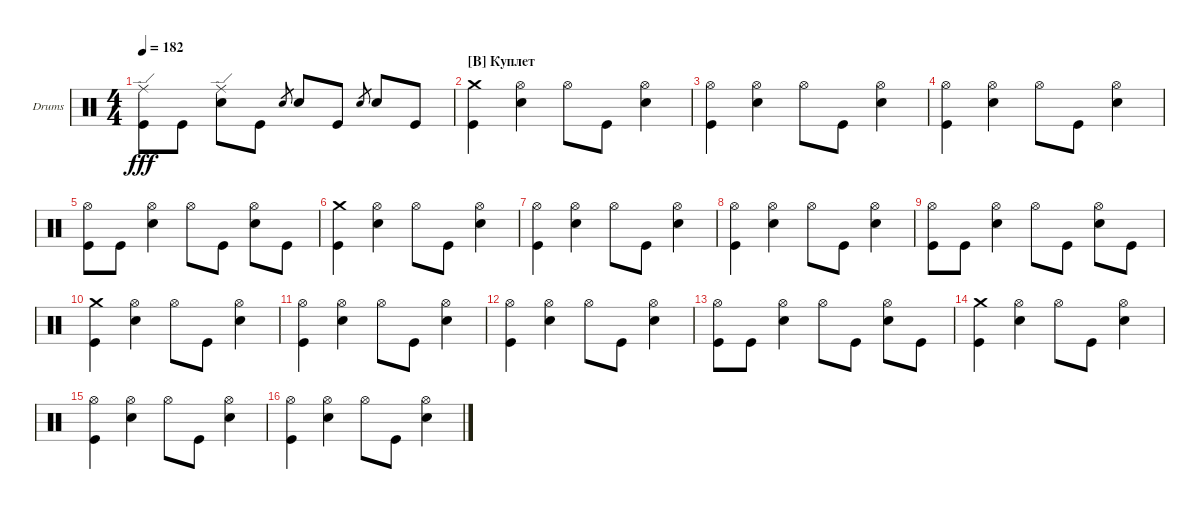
\defaultSystemsLayout 4
\bracketExtendMode groupsimilarinstruments
\firstSystemTrackNameOrientation horizontal
\otherSystemsTrackNameOrientation horizontal
\track ("Drumkit" "Drums") {instrument percussion}
\staff {score}
\articulation defaults
\ts (4 4)
\tempo 182
\clef neutral
\ks c
("Kick (hit)" "Ride (edge)").8{dy fff} "Kick (hit)".8 ("Snare (hit) 2" "Ride (edge)").8 "Kick (hit)".8 "Snare (hit) 2".8{gr} "Snare (hit) 2".8 "Kick (hit)".8 "Snare (hit) 2".8{gr} "Snare (hit) 2".8 "Kick (hit)".8 |
\section ("B" "Куплет")
("Kick (hit)" "Crash medium (hit)").4 ("Snare (hit) 2" "Hi-Hat (open)").4 "Hi-Hat (open)".8 "Kick (hit)".8 ("Snare (hit) 2" "Hi-Hat (open)").4 |
("Kick (hit)" "Hi-Hat (open)").4 ("Snare (hit) 2" "Hi-Hat (open)").4 "Hi-Hat (open)".8 "Kick (hit)".8 ("Snare (hit) 2" "Hi-Hat (open)").4 |
("Kick (hit)" "Hi-Hat (open)").4 ("Snare (hit) 2" "Hi-Hat (open)").4 "Hi-Hat (open)".8 "Kick (hit)".8 ("Snare (hit) 2" "Hi-Hat (open)").4 |
("Kick (hit)" "Hi-Hat (open)").8 "Kick (hit)".8 ("Snare (hit) 2" "Hi-Hat (open)").4 "Hi-Hat (open)".8 "Kick (hit)".8 ("Snare (hit) 2" "Hi-Hat (open)").8 "Kick (hit)".8 |
("Kick (hit)" "Crash medium (hit)").4 ("Snare (hit) 2" "Hi-Hat (open)").4 "Hi-Hat (open)".8 "Kick (hit)".8 ("Snare (hit) 2" "Hi-Hat (open)").4 |
("Kick (hit)" "Hi-Hat (open)").4 ("Snare (hit) 2" "Hi-Hat (open)").4 "Hi-Hat (open)".8 "Kick (hit)".8 ("Snare (hit) 2" "Hi-Hat (open)").4 |
("Kick (hit)" "Hi-Hat (open)").4 ("Snare (hit) 2" "Hi-Hat (open)").4 "Hi-Hat (open)".8 "Kick (hit)".8 ("Snare (hit) 2" "Hi-Hat (open)").4 |
("Kick (hit)" "Hi-Hat (open)").8 "Kick (hit)".8 ("Snare (hit) 2" "Hi-Hat (open)").4 "Hi-Hat (open)".8 "Kick (hit)".8 ("Snare (hit) 2" "Hi-Hat (open)").8 "Kick (hit)".8 |
("Kick (hit)" "Crash medium (hit)").4 ("Snare (hit) 2" "Hi-Hat (open)").4 "Hi-Hat (open)".8 "Kick (hit)".8 ("Snare (hit) 2" "Hi-Hat (open)").4 |
("Kick (hit)" "Hi-Hat (open)").4 ("Snare (hit) 2" "Hi-Hat (open)").4 "Hi-Hat (open)".8 "Kick (hit)".8 ("Snare (hit) 2" "Hi-Hat (open)").4 |
("Kick (hit)" "Hi-Hat (open)").4 ("Snare (hit) 2" "Hi-Hat (open)").4 "Hi-Hat (open)".8 "Kick (hit)".8 ("Snare (hit) 2" "Hi-Hat (open)").4 |
("Kick (hit)" "Hi-Hat (open)").8 "Kick (hit)".8 ("Snare (hit) 2" "Hi-Hat (open)").4 "Hi-Hat (open)".8 "Kick (hit)".8 ("Snare (hit) 2" "Hi-Hat (open)").8 "Kick (hit)".8 |
("Kick (hit)" "Crash medium (hit)").4 ("Snare (hit) 2" "Hi-Hat (open)").4 "Hi-Hat (open)".8 "Kick (hit)".8 ("Snare (hit) 2" "Hi-Hat (open)").4 |
("Kick (hit)" "Hi-Hat (open)").4 ("Snare (hit) 2" "Hi-Hat (open)").4 "Hi-Hat (open)".8 "Kick (hit)".8 ("Snare (hit) 2" "Hi-Hat (open)").4 |
("Kick (hit)" "Hi-Hat (open)").4 ("Snare (hit) 2" "Hi-Hat (open)").4 "Hi-Hat (open)".8 "Kick (hit)".8 ("Snare (hit) 2" "Hi-Hat (open)").4
